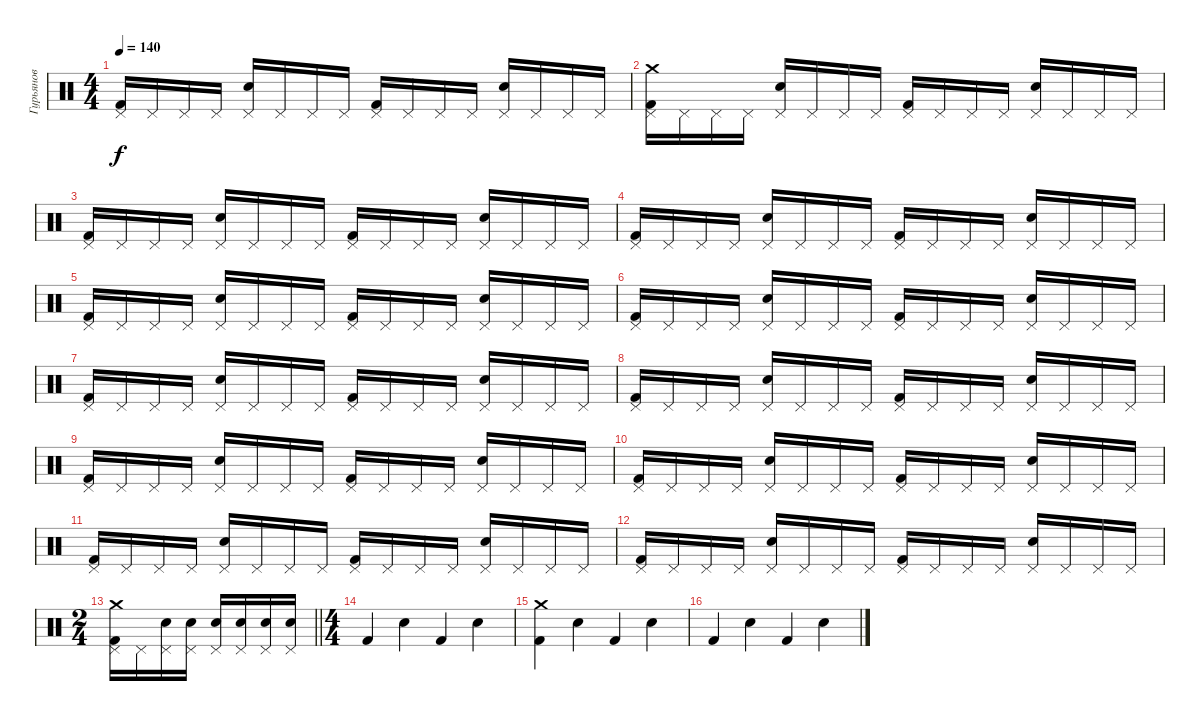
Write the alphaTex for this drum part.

\track ("Гурьянов" "Гурьянов") {instrument percussion}
\staff {score}
\articulation defaults
\ts (4 4)
\tempo 140
\clef neutral
\ks c
("Pedal Hi-Hat (hit)" "Kick (hit) 2").16{dy f} "Pedal Hi-Hat (hit)".16 "Pedal Hi-Hat (hit)".16 "Pedal Hi-Hat (hit)".16 ("Pedal Hi-Hat (hit)" "Electric Snare (hit)").16 "Pedal Hi-Hat (hit)".16 "Pedal Hi-Hat (hit)".16 "Pedal Hi-Hat (hit)".16 ("Pedal Hi-Hat (hit)" "Kick (hit) 2").16 "Pedal Hi-Hat (hit)".16 "Pedal Hi-Hat (hit)".16 "Pedal Hi-Hat (hit)".16 ("Pedal Hi-Hat (hit)" "Electric Snare (hit)").16 "Pedal Hi-Hat (hit)".16 "Pedal Hi-Hat (hit)".16 "Pedal Hi-Hat (hit)".16 |
("Pedal Hi-Hat (hit)" "Crash medium (hit)" "Kick (hit) 2").16 "Pedal Hi-Hat (hit)".16 "Pedal Hi-Hat (hit)".16 "Pedal Hi-Hat (hit)".16 ("Pedal Hi-Hat (hit)" "Electric Snare (hit)").16 "Pedal Hi-Hat (hit)".16 "Pedal Hi-Hat (hit)".16 "Pedal Hi-Hat (hit)".16 ("Pedal Hi-Hat (hit)" "Kick (hit) 2").16 "Pedal Hi-Hat (hit)".16 "Pedal Hi-Hat (hit)".16 "Pedal Hi-Hat (hit)".16 ("Pedal Hi-Hat (hit)" "Electric Snare (hit)").16 "Pedal Hi-Hat (hit)".16 "Pedal Hi-Hat (hit)".16 "Pedal Hi-Hat (hit)".16 |
("Pedal Hi-Hat (hit)" "Kick (hit) 2").16 "Pedal Hi-Hat (hit)".16 "Pedal Hi-Hat (hit)".16 "Pedal Hi-Hat (hit)".16 ("Pedal Hi-Hat (hit)" "Electric Snare (hit)").16 "Pedal Hi-Hat (hit)".16 "Pedal Hi-Hat (hit)".16 "Pedal Hi-Hat (hit)".16 ("Pedal Hi-Hat (hit)" "Kick (hit) 2").16 "Pedal Hi-Hat (hit)".16 "Pedal Hi-Hat (hit)".16 "Pedal Hi-Hat (hit)".16 ("Pedal Hi-Hat (hit)" "Electric Snare (hit)").16 "Pedal Hi-Hat (hit)".16 "Pedal Hi-Hat (hit)".16 "Pedal Hi-Hat (hit)".16 |
("Pedal Hi-Hat (hit)" "Kick (hit) 2").16 "Pedal Hi-Hat (hit)".16 "Pedal Hi-Hat (hit)".16 "Pedal Hi-Hat (hit)".16 ("Pedal Hi-Hat (hit)" "Electric Snare (hit)").16 "Pedal Hi-Hat (hit)".16 "Pedal Hi-Hat (hit)".16 "Pedal Hi-Hat (hit)".16 ("Pedal Hi-Hat (hit)" "Kick (hit) 2").16 "Pedal Hi-Hat (hit)".16 "Pedal Hi-Hat (hit)".16 "Pedal Hi-Hat (hit)".16 ("Pedal Hi-Hat (hit)" "Electric Snare (hit)").16 "Pedal Hi-Hat (hit)".16 "Pedal Hi-Hat (hit)".16 "Pedal Hi-Hat (hit)".16 |
("Pedal Hi-Hat (hit)" "Kick (hit) 2").16 "Pedal Hi-Hat (hit)".16 "Pedal Hi-Hat (hit)".16 "Pedal Hi-Hat (hit)".16 ("Pedal Hi-Hat (hit)" "Electric Snare (hit)").16 "Pedal Hi-Hat (hit)".16 "Pedal Hi-Hat (hit)".16 "Pedal Hi-Hat (hit)".16 ("Pedal Hi-Hat (hit)" "Kick (hit) 2").16 "Pedal Hi-Hat (hit)".16 "Pedal Hi-Hat (hit)".16 "Pedal Hi-Hat (hit)".16 ("Pedal Hi-Hat (hit)" "Electric Snare (hit)").16 "Pedal Hi-Hat (hit)".16 "Pedal Hi-Hat (hit)".16 "Pedal Hi-Hat (hit)".16 |
("Pedal Hi-Hat (hit)" "Kick (hit) 2").16 "Pedal Hi-Hat (hit)".16 "Pedal Hi-Hat (hit)".16 "Pedal Hi-Hat (hit)".16 ("Pedal Hi-Hat (hit)" "Electric Snare (hit)").16 "Pedal Hi-Hat (hit)".16 "Pedal Hi-Hat (hit)".16 "Pedal Hi-Hat (hit)".16 ("Pedal Hi-Hat (hit)" "Kick (hit) 2").16 "Pedal Hi-Hat (hit)".16 "Pedal Hi-Hat (hit)".16 "Pedal Hi-Hat (hit)".16 ("Pedal Hi-Hat (hit)" "Electric Snare (hit)").16 "Pedal Hi-Hat (hit)".16 "Pedal Hi-Hat (hit)".16 "Pedal Hi-Hat (hit)".16 |
("Pedal Hi-Hat (hit)" "Kick (hit) 2").16 "Pedal Hi-Hat (hit)".16 "Pedal Hi-Hat (hit)".16 "Pedal Hi-Hat (hit)".16 ("Pedal Hi-Hat (hit)" "Electric Snare (hit)").16 "Pedal Hi-Hat (hit)".16 "Pedal Hi-Hat (hit)".16 "Pedal Hi-Hat (hit)".16 ("Pedal Hi-Hat (hit)" "Kick (hit) 2").16 "Pedal Hi-Hat (hit)".16 "Pedal Hi-Hat (hit)".16 "Pedal Hi-Hat (hit)".16 ("Pedal Hi-Hat (hit)" "Electric Snare (hit)").16 "Pedal Hi-Hat (hit)".16 "Pedal Hi-Hat (hit)".16 "Pedal Hi-Hat (hit)".16 |
("Pedal Hi-Hat (hit)" "Kick (hit) 2").16 "Pedal Hi-Hat (hit)".16 "Pedal Hi-Hat (hit)".16 "Pedal Hi-Hat (hit)".16 ("Pedal Hi-Hat (hit)" "Electric Snare (hit)").16 "Pedal Hi-Hat (hit)".16 "Pedal Hi-Hat (hit)".16 "Pedal Hi-Hat (hit)".16 ("Pedal Hi-Hat (hit)" "Kick (hit) 2").16 "Pedal Hi-Hat (hit)".16 "Pedal Hi-Hat (hit)".16 "Pedal Hi-Hat (hit)".16 ("Pedal Hi-Hat (hit)" "Electric Snare (hit)").16 "Pedal Hi-Hat (hit)".16 "Pedal Hi-Hat (hit)".16 "Pedal Hi-Hat (hit)".16 |
("Pedal Hi-Hat (hit)" "Kick (hit) 2").16 "Pedal Hi-Hat (hit)".16 "Pedal Hi-Hat (hit)".16 "Pedal Hi-Hat (hit)".16 ("Pedal Hi-Hat (hit)" "Electric Snare (hit)").16 "Pedal Hi-Hat (hit)".16 "Pedal Hi-Hat (hit)".16 "Pedal Hi-Hat (hit)".16 ("Pedal Hi-Hat (hit)" "Kick (hit) 2").16 "Pedal Hi-Hat (hit)".16 "Pedal Hi-Hat (hit)".16 "Pedal Hi-Hat (hit)".16 ("Pedal Hi-Hat (hit)" "Electric Snare (hit)").16 "Pedal Hi-Hat (hit)".16 "Pedal Hi-Hat (hit)".16 "Pedal Hi-Hat (hit)".16 |
("Pedal Hi-Hat (hit)" "Kick (hit) 2").16 "Pedal Hi-Hat (hit)".16 "Pedal Hi-Hat (hit)".16 "Pedal Hi-Hat (hit)".16 ("Pedal Hi-Hat (hit)" "Electric Snare (hit)").16 "Pedal Hi-Hat (hit)".16 "Pedal Hi-Hat (hit)".16 "Pedal Hi-Hat (hit)".16 ("Pedal Hi-Hat (hit)" "Kick (hit) 2").16 "Pedal Hi-Hat (hit)".16 "Pedal Hi-Hat (hit)".16 "Pedal Hi-Hat (hit)".16 ("Pedal Hi-Hat (hit)" "Electric Snare (hit)").16 "Pedal Hi-Hat (hit)".16 "Pedal Hi-Hat (hit)".16 "Pedal Hi-Hat (hit)".16 |
("Pedal Hi-Hat (hit)" "Kick (hit) 2").16 "Pedal Hi-Hat (hit)".16 "Pedal Hi-Hat (hit)".16 "Pedal Hi-Hat (hit)".16 ("Pedal Hi-Hat (hit)" "Electric Snare (hit)").16 "Pedal Hi-Hat (hit)".16 "Pedal Hi-Hat (hit)".16 "Pedal Hi-Hat (hit)".16 ("Pedal Hi-Hat (hit)" "Kick (hit) 2").16 "Pedal Hi-Hat (hit)".16 "Pedal Hi-Hat (hit)".16 "Pedal Hi-Hat (hit)".16 ("Pedal Hi-Hat (hit)" "Electric Snare (hit)").16 "Pedal Hi-Hat (hit)".16 "Pedal Hi-Hat (hit)".16 "Pedal Hi-Hat (hit)".16 |
("Pedal Hi-Hat (hit)" "Kick (hit) 2").16 "Pedal Hi-Hat (hit)".16 "Pedal Hi-Hat (hit)".16 "Pedal Hi-Hat (hit)".16 ("Pedal Hi-Hat (hit)" "Electric Snare (hit)").16 "Pedal Hi-Hat (hit)".16 "Pedal Hi-Hat (hit)".16 "Pedal Hi-Hat (hit)".16 ("Pedal Hi-Hat (hit)" "Kick (hit) 2").16 "Pedal Hi-Hat (hit)".16 "Pedal Hi-Hat (hit)".16 "Pedal Hi-Hat (hit)".16 ("Pedal Hi-Hat (hit)" "Electric Snare (hit)").16 "Pedal Hi-Hat (hit)".16 "Pedal Hi-Hat (hit)".16 "Pedal Hi-Hat (hit)".16 |
\ts (2 4)
\barLineRight lightlight
("Pedal Hi-Hat (hit)" "Kick (hit) 2" "Crash medium (hit)").16 "Pedal Hi-Hat (hit)".16 ("Pedal Hi-Hat (hit)" "Electric Snare (hit)").16 ("Pedal Hi-Hat (hit)" "Electric Snare (hit)").16 ("Pedal Hi-Hat (hit)" "Electric Snare (hit)").16 ("Pedal Hi-Hat (hit)" "Electric Snare (hit)").16 ("Pedal Hi-Hat (hit)" "Electric Snare (hit)").16 ("Pedal Hi-Hat (hit)" "Electric Snare (hit)").16 |
\ts (4 4)
"Kick (hit) 2".4 "Electric Snare (hit)".4 "Kick (hit) 2".4 "Electric Snare (hit)".4 |
("Kick (hit) 2" "Crash medium (hit)").4 "Electric Snare (hit)".4 "Kick (hit) 2".4 "Electric Snare (hit)".4 |
"Kick (hit) 2".4 "Electric Snare (hit)".4 "Kick (hit) 2".4 "Electric Snare (hit)".4
